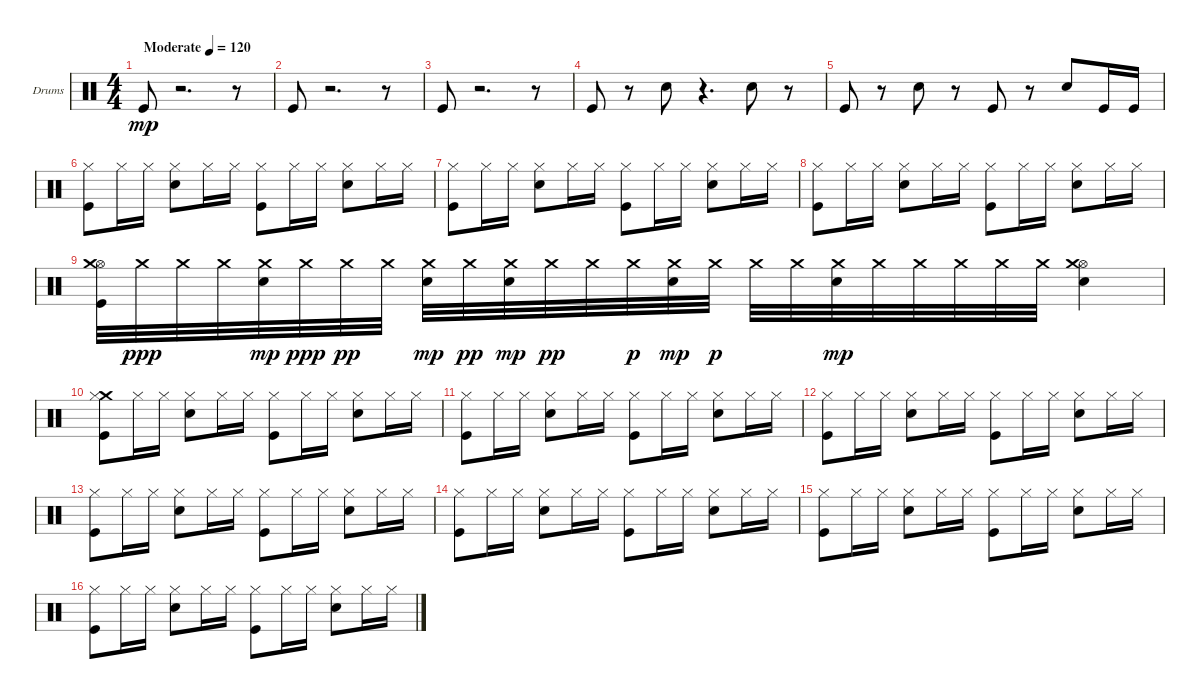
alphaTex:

\bracketExtendMode groupsimilarinstruments
\firstSystemTrackNameOrientation horizontal
\otherSystemsTrackNameOrientation horizontal
\track ("Drumkit" "Drums") {instrument percussion}
\staff {score}
\articulation defaults
\ts (4 4)
\beaming (8 2 2 2 2)
\tempo (120 "Moderate")
\clef neutral
\ks c "Kick (hit)".8{dy mp}
r.2{d} r.8 |
"Kick (hit)".8 r.2{d} r.8 |
"Kick (hit)".8 r.2{d} r.8 |
"Kick (hit)".8 r.8 "Snare (hit) 2".8 r.4{d} "Snare (hit) 2".8 r.8 |
"Kick (hit)".8 r.8 "Snare (hit) 2".8 r.8 "Kick (hit)".8 r.8 "Snare (hit) 2".8 "Kick (hit)".16 "Kick (hit)".16 |
("Kick (hit)" "Hi-Hat (closed)").8 "Hi-Hat (closed)".16 "Hi-Hat (closed)".16 ("Snare (hit) 2" "Hi-Hat (closed)").8 "Hi-Hat (closed)".16 "Hi-Hat (closed)".16 ("Kick (hit)" "Hi-Hat (closed)").8 "Hi-Hat (closed)".16 "Hi-Hat (closed)".16 ("Snare (hit) 2" "Hi-Hat (closed)").8 "Hi-Hat (closed)".16 "Hi-Hat (closed)".16 |
("Kick (hit)" "Hi-Hat (closed)").8 "Hi-Hat (closed)".16 "Hi-Hat (closed)".16 ("Snare (hit) 2" "Hi-Hat (closed)").8 "Hi-Hat (closed)".16 "Hi-Hat (closed)".16 ("Kick (hit)" "Hi-Hat (closed)").8 "Hi-Hat (closed)".16 "Hi-Hat (closed)".16 ("Snare (hit) 2" "Hi-Hat (closed)").8 "Hi-Hat (closed)".16 "Hi-Hat (closed)".16 |
("Kick (hit)" "Hi-Hat (closed)").8 "Hi-Hat (closed)".16 "Hi-Hat (closed)".16 ("Snare (hit) 2" "Hi-Hat (closed)").8 "Hi-Hat (closed)".16 "Hi-Hat (closed)".16 ("Kick (hit)" "Hi-Hat (closed)").8 "Hi-Hat (closed)".16 "Hi-Hat (closed)".16 ("Snare (hit) 2" "Hi-Hat (closed)").8 "Hi-Hat (closed)".16 "Hi-Hat (closed)".16 |
("Kick (hit)" "Hi-Hat (open)" "Crash medium (hit)").32 "Crash medium (hit)".32{dy ppp} "Crash medium (hit)".32 "Crash medium (hit)".32 ("Snare (hit) 2" "Crash medium (hit)").32{dy mp} "Crash medium (hit)".32{dy ppp} "Crash medium (hit)".32{dy pp} "Crash medium (hit)".32 ("Snare (hit) 2" "Crash medium (hit)").32{dy mp} "Crash medium (hit)".32{dy pp} ("Snare (hit) 2" "Crash medium (hit)").32{dy mp} "Crash medium (hit)".32{dy pp} "Crash medium (hit)".32 "Crash medium (hit)".32{dy p} ("Snare (hit) 2" "Crash medium (hit)").32{dy mp} "Crash medium (hit)".32{dy p} "Crash medium (hit)".32 "Crash medium (hit)".32 ("Snare (hit) 2" "Crash medium (hit)").32{dy mp} "Crash medium (hit)".32 "Crash medium (hit)".32 "Crash medium (hit)".32 "Crash medium (hit)".32 "Crash medium (hit)".32 ("Snare (hit) 2" "Hi-Hat (open)" "Crash medium (hit)").4 |
("Crash medium (hit)" "Kick (hit)" "Hi-Hat (closed)").8 "Hi-Hat (closed)".16 "Hi-Hat (closed)".16 ("Snare (hit) 2" "Hi-Hat (closed)").8 "Hi-Hat (closed)".16 "Hi-Hat (closed)".16 ("Kick (hit)" "Hi-Hat (closed)").8 "Hi-Hat (closed)".16 "Hi-Hat (closed)".16 ("Snare (hit) 2" "Hi-Hat (closed)").8 "Hi-Hat (closed)".16 "Hi-Hat (closed)".16 |
("Kick (hit)" "Hi-Hat (closed)").8 "Hi-Hat (closed)".16 "Hi-Hat (closed)".16 ("Snare (hit) 2" "Hi-Hat (closed)").8 "Hi-Hat (closed)".16 "Hi-Hat (closed)".16 ("Kick (hit)" "Hi-Hat (closed)").8 "Hi-Hat (closed)".16 "Hi-Hat (closed)".16 ("Snare (hit) 2" "Hi-Hat (closed)").8 "Hi-Hat (closed)".16 "Hi-Hat (closed)".16 |
("Kick (hit)" "Hi-Hat (closed)").8 "Hi-Hat (closed)".16 "Hi-Hat (closed)".16 ("Snare (hit) 2" "Hi-Hat (closed)").8 "Hi-Hat (closed)".16 "Hi-Hat (closed)".16 ("Kick (hit)" "Hi-Hat (closed)").8 "Hi-Hat (closed)".16 "Hi-Hat (closed)".16 ("Snare (hit) 2" "Hi-Hat (closed)").8 "Hi-Hat (closed)".16 "Hi-Hat (closed)".16 |
("Kick (hit)" "Hi-Hat (closed)").8 "Hi-Hat (closed)".16 "Hi-Hat (closed)".16 ("Snare (hit) 2" "Hi-Hat (closed)").8 "Hi-Hat (closed)".16 "Hi-Hat (closed)".16 ("Kick (hit)" "Hi-Hat (closed)").8 "Hi-Hat (closed)".16 "Hi-Hat (closed)".16 ("Snare (hit) 2" "Hi-Hat (closed)").8 "Hi-Hat (closed)".16 "Hi-Hat (closed)".16 |
("Kick (hit)" "Hi-Hat (closed)").8 "Hi-Hat (closed)".16 "Hi-Hat (closed)".16 ("Snare (hit) 2" "Hi-Hat (closed)").8 "Hi-Hat (closed)".16 "Hi-Hat (closed)".16 ("Kick (hit)" "Hi-Hat (closed)").8 "Hi-Hat (closed)".16 "Hi-Hat (closed)".16 ("Snare (hit) 2" "Hi-Hat (closed)").8 "Hi-Hat (closed)".16 "Hi-Hat (closed)".16 |
("Kick (hit)" "Hi-Hat (closed)").8 "Hi-Hat (closed)".16 "Hi-Hat (closed)".16 ("Snare (hit) 2" "Hi-Hat (closed)").8 "Hi-Hat (closed)".16 "Hi-Hat (closed)".16 ("Kick (hit)" "Hi-Hat (closed)").8 "Hi-Hat (closed)".16 "Hi-Hat (closed)".16 ("Snare (hit) 2" "Hi-Hat (closed)").8 "Hi-Hat (closed)".16 "Hi-Hat (closed)".16 |
("Kick (hit)" "Hi-Hat (closed)").8 "Hi-Hat (closed)".16 "Hi-Hat (closed)".16 ("Snare (hit) 2" "Hi-Hat (closed)").8 "Hi-Hat (closed)".16 "Hi-Hat (closed)".16 ("Kick (hit)" "Hi-Hat (closed)").8 "Hi-Hat (closed)".16 "Hi-Hat (closed)".16 ("Snare (hit) 2" "Hi-Hat (closed)").8 "Hi-Hat (closed)".16 "Hi-Hat (closed)".16
